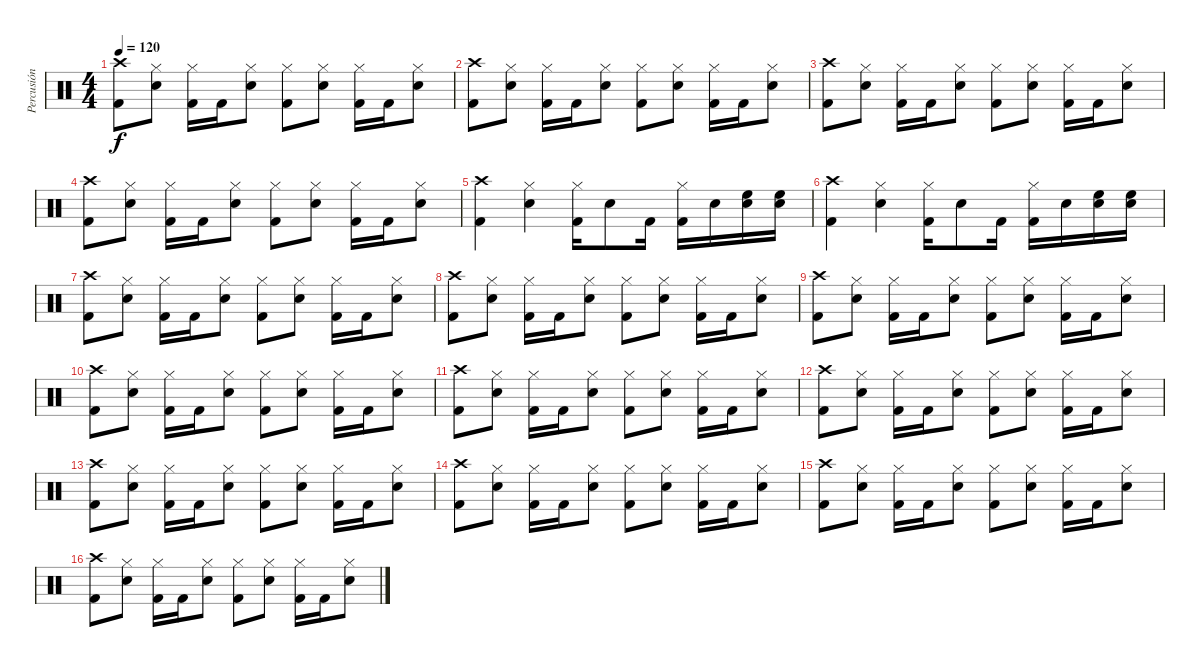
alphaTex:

\track ("Percusión" "Percusión") {instrument percussion}
\staff {score}
\articulation defaults
\ts (4 4)
\tempo 120
\clef neutral
\ks c
("Kick (hit) 2" "Crash high (hit)").8{dy f} ("Snare (hit) 2" "Hi-Hat (closed)").8 ("Kick (hit) 2" "Hi-Hat (closed)").16 "Kick (hit) 2".16 ("Snare (hit) 2" "Hi-Hat (closed)").8 ("Kick (hit) 2" "Hi-Hat (closed)").8 ("Snare (hit) 2" "Hi-Hat (closed)").8 ("Kick (hit) 2" "Hi-Hat (closed)").16 "Kick (hit) 2".16 ("Snare (hit) 2" "Hi-Hat (closed)").8 |
("Kick (hit) 2" "Crash high (hit)").8 ("Snare (hit) 2" "Hi-Hat (closed)").8 ("Kick (hit) 2" "Hi-Hat (closed)").16 "Kick (hit) 2".16 ("Snare (hit) 2" "Hi-Hat (closed)").8 ("Kick (hit) 2" "Hi-Hat (closed)").8 ("Snare (hit) 2" "Hi-Hat (closed)").8 ("Kick (hit) 2" "Hi-Hat (closed)").16 "Kick (hit) 2".16 ("Snare (hit) 2" "Hi-Hat (closed)").8 |
("Kick (hit) 2" "Crash high (hit)").8 ("Snare (hit) 2" "Hi-Hat (closed)").8 ("Kick (hit) 2" "Hi-Hat (closed)").16 "Kick (hit) 2".16 ("Snare (hit) 2" "Hi-Hat (closed)").8 ("Kick (hit) 2" "Hi-Hat (closed)").8 ("Snare (hit) 2" "Hi-Hat (closed)").8 ("Kick (hit) 2" "Hi-Hat (closed)").16 "Kick (hit) 2".16 ("Snare (hit) 2" "Hi-Hat (closed)").8 |
("Kick (hit) 2" "Crash high (hit)").8 ("Snare (hit) 2" "Hi-Hat (closed)").8 ("Kick (hit) 2" "Hi-Hat (closed)").16 "Kick (hit) 2".16 ("Snare (hit) 2" "Hi-Hat (closed)").8 ("Kick (hit) 2" "Hi-Hat (closed)").8 ("Snare (hit) 2" "Hi-Hat (closed)").8 ("Kick (hit) 2" "Hi-Hat (closed)").16 "Kick (hit) 2".16 ("Snare (hit) 2" "Hi-Hat (closed)").8 |
("Kick (hit) 2" "Crash high (hit)").4 ("Snare (hit) 2" "Hi-Hat (closed)").4 ("Kick (hit) 2" "Hi-Hat (closed)").16 "Snare (hit) 2".8 "Kick (hit) 2".16 ("Kick (hit) 2" "Hi-Hat (closed)").16 "Snare (hit) 2".16 ("Snare (hit) 2" "High Floor Tom (hit)").16 ("Snare (hit) 2" "High Floor Tom (hit)").16 |
("Kick (hit) 2" "Crash high (hit)").4 ("Snare (hit) 2" "Hi-Hat (closed)").4 ("Kick (hit) 2" "Hi-Hat (closed)").16 "Snare (hit) 2".8 "Kick (hit) 2".16 ("Kick (hit) 2" "Hi-Hat (closed)").16 "Snare (hit) 2".16 ("Snare (hit) 2" "High Floor Tom (hit)").16 ("Snare (hit) 2" "High Floor Tom (hit)").16 |
("Kick (hit) 2" "Crash high (hit)").8 ("Snare (hit) 2" "Hi-Hat (closed)").8 ("Kick (hit) 2" "Hi-Hat (closed)").16 "Kick (hit) 2".16 ("Snare (hit) 2" "Hi-Hat (closed)").8 ("Kick (hit) 2" "Hi-Hat (closed)").8 ("Snare (hit) 2" "Hi-Hat (closed)").8 ("Kick (hit) 2" "Hi-Hat (closed)").16 "Kick (hit) 2".16 ("Snare (hit) 2" "Hi-Hat (closed)").8 |
("Kick (hit) 2" "Crash high (hit)").8 ("Snare (hit) 2" "Hi-Hat (closed)").8 ("Kick (hit) 2" "Hi-Hat (closed)").16 "Kick (hit) 2".16 ("Snare (hit) 2" "Hi-Hat (closed)").8 ("Kick (hit) 2" "Hi-Hat (closed)").8 ("Snare (hit) 2" "Hi-Hat (closed)").8 ("Kick (hit) 2" "Hi-Hat (closed)").16 "Kick (hit) 2".16 ("Snare (hit) 2" "Hi-Hat (closed)").8 |
("Kick (hit) 2" "Crash high (hit)").8 ("Snare (hit) 2" "Hi-Hat (closed)").8 ("Kick (hit) 2" "Hi-Hat (closed)").16 "Kick (hit) 2".16 ("Snare (hit) 2" "Hi-Hat (closed)").8 ("Kick (hit) 2" "Hi-Hat (closed)").8 ("Snare (hit) 2" "Hi-Hat (closed)").8 ("Kick (hit) 2" "Hi-Hat (closed)").16 "Kick (hit) 2".16 ("Snare (hit) 2" "Hi-Hat (closed)").8 |
("Kick (hit) 2" "Crash high (hit)").8 ("Snare (hit) 2" "Hi-Hat (closed)").8 ("Kick (hit) 2" "Hi-Hat (closed)").16 "Kick (hit) 2".16 ("Snare (hit) 2" "Hi-Hat (closed)").8 ("Kick (hit) 2" "Hi-Hat (closed)").8 ("Snare (hit) 2" "Hi-Hat (closed)").8 ("Kick (hit) 2" "Hi-Hat (closed)").16 "Kick (hit) 2".16 ("Snare (hit) 2" "Hi-Hat (closed)").8 |
("Kick (hit) 2" "Crash high (hit)").8 ("Snare (hit) 2" "Hi-Hat (closed)").8 ("Kick (hit) 2" "Hi-Hat (closed)").16 "Kick (hit) 2".16 ("Snare (hit) 2" "Hi-Hat (closed)").8 ("Kick (hit) 2" "Hi-Hat (closed)").8 ("Snare (hit) 2" "Hi-Hat (closed)").8 ("Kick (hit) 2" "Hi-Hat (closed)").16 "Kick (hit) 2".16 ("Snare (hit) 2" "Hi-Hat (closed)").8 |
("Kick (hit) 2" "Crash high (hit)").8 ("Snare (hit) 2" "Hi-Hat (closed)").8 ("Kick (hit) 2" "Hi-Hat (closed)").16 "Kick (hit) 2".16 ("Snare (hit) 2" "Hi-Hat (closed)").8 ("Kick (hit) 2" "Hi-Hat (closed)").8 ("Snare (hit) 2" "Hi-Hat (closed)").8 ("Kick (hit) 2" "Hi-Hat (closed)").16 "Kick (hit) 2".16 ("Snare (hit) 2" "Hi-Hat (closed)").8 |
("Kick (hit) 2" "Crash high (hit)").8 ("Snare (hit) 2" "Hi-Hat (closed)").8 ("Kick (hit) 2" "Hi-Hat (closed)").16 "Kick (hit) 2".16 ("Snare (hit) 2" "Hi-Hat (closed)").8 ("Kick (hit) 2" "Hi-Hat (closed)").8 ("Snare (hit) 2" "Hi-Hat (closed)").8 ("Kick (hit) 2" "Hi-Hat (closed)").16 "Kick (hit) 2".16 ("Snare (hit) 2" "Hi-Hat (closed)").8 |
("Kick (hit) 2" "Crash high (hit)").8 ("Snare (hit) 2" "Hi-Hat (closed)").8 ("Kick (hit) 2" "Hi-Hat (closed)").16 "Kick (hit) 2".16 ("Snare (hit) 2" "Hi-Hat (closed)").8 ("Kick (hit) 2" "Hi-Hat (closed)").8 ("Snare (hit) 2" "Hi-Hat (closed)").8 ("Kick (hit) 2" "Hi-Hat (closed)").16 "Kick (hit) 2".16 ("Snare (hit) 2" "Hi-Hat (closed)").8 |
("Kick (hit) 2" "Crash high (hit)").8 ("Snare (hit) 2" "Hi-Hat (closed)").8 ("Kick (hit) 2" "Hi-Hat (closed)").16 "Kick (hit) 2".16 ("Snare (hit) 2" "Hi-Hat (closed)").8 ("Kick (hit) 2" "Hi-Hat (closed)").8 ("Snare (hit) 2" "Hi-Hat (closed)").8 ("Kick (hit) 2" "Hi-Hat (closed)").16 "Kick (hit) 2".16 ("Snare (hit) 2" "Hi-Hat (closed)").8 |
("Kick (hit) 2" "Crash high (hit)").8 ("Snare (hit) 2" "Hi-Hat (closed)").8 ("Kick (hit) 2" "Hi-Hat (closed)").16 "Kick (hit) 2".16 ("Snare (hit) 2" "Hi-Hat (closed)").8 ("Kick (hit) 2" "Hi-Hat (closed)").8 ("Snare (hit) 2" "Hi-Hat (closed)").8 ("Kick (hit) 2" "Hi-Hat (closed)").16 "Kick (hit) 2".16 ("Snare (hit) 2" "Hi-Hat (closed)").8
